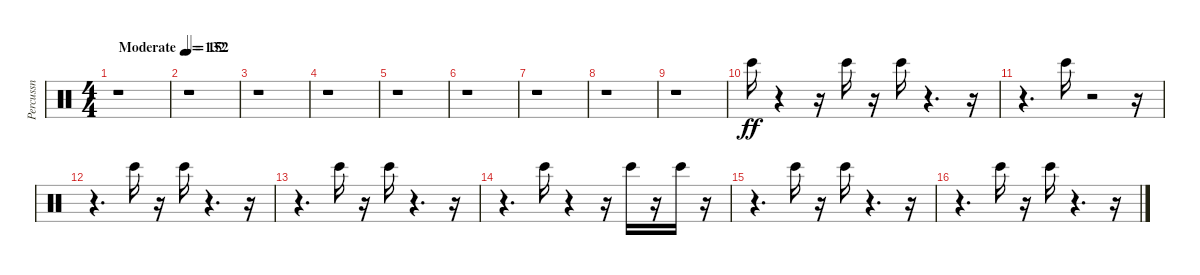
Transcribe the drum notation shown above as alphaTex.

\track ("Percussn" "Percussn") {instrument percussion}
\staff {score}
\articulation defaults
\ts (4 4)
\tempo (132 "Moderate")
\clef neutral
\ks c
r.1{dy ff} |
\tempo 152
r.1 |
r.1 |
r.1 |
r.1 |
r.1 |
r.1 |
r.1 |
r.1 |
"Bongo High (hit)".16 r.4 r.16 "Bongo High (hit)".16{balance 9} r.16 "Bongo High (hit)".16{balance 8} r.4{d} r.16 |
r.4{d} "Bongo High (hit)".16{balance 1} r.2 r.16 |
r.4{d} "Bongo High (hit)".16{balance 5} r.16 "Bongo High (hit)".16{balance 15} r.4{d} r.16 |
r.4{d} "Bongo High (hit)".16{balance 7} r.16 "Bongo High (hit)".16{balance 2} r.4{d} r.16 |
r.4{d} "Bongo High (hit)".16{balance 7} r.4 r.16 "Bongo High (hit)".16{balance 14} r.16 "Bongo High (hit)".16{balance 13} r.16 |
r.4{d} "Bongo High (hit)".16{balance 12} r.16 "Bongo High (hit)".16{balance 1} r.4{d} r.16 |
r.4{d} "Bongo High (hit)".16{balance 4} r.16 "Bongo High (hit)".16{balance 4} r.4{d} r.16
